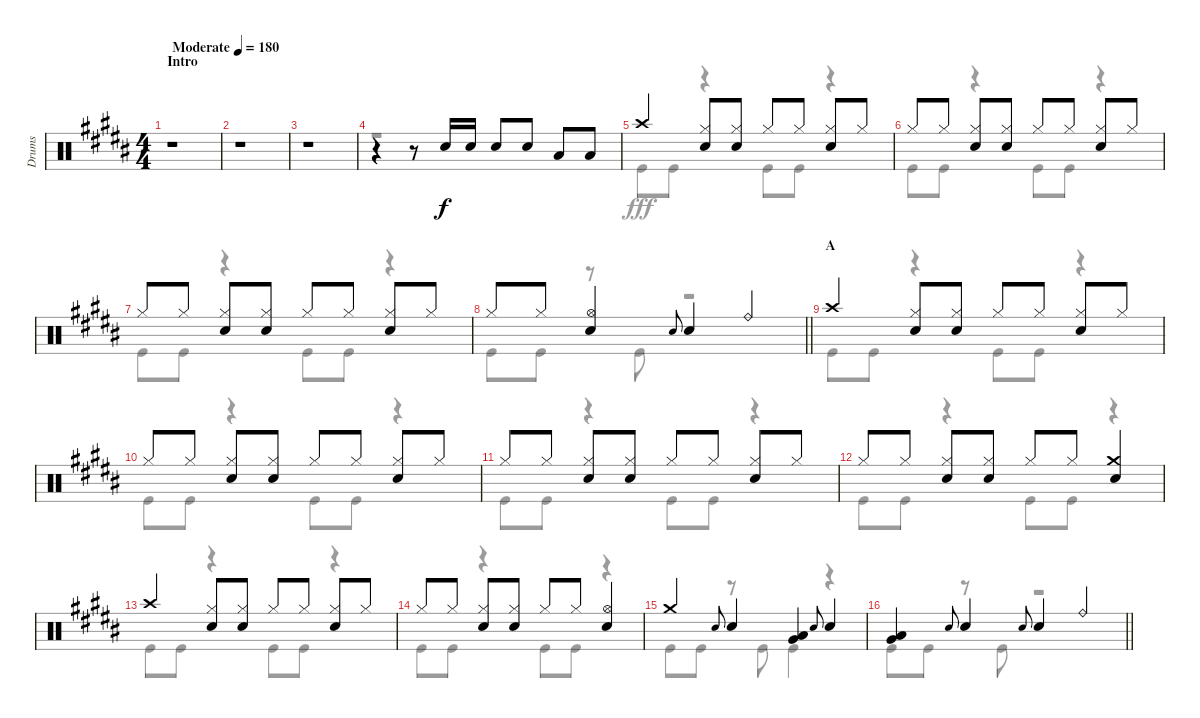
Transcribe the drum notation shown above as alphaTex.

\track ("Drums" "Drums") {instrument percussion}
\staff {score}
\articulation defaults
\voice
\ts (4 4)
\section ("" "Intro")
\tempo (180 "Moderate")
\clef neutral
\ks b
r.1{dy f} |
r.1 |
r.1 |
r.4 r.8 "Snare (hit) 2".16 "Snare (hit) 2".16 "Snare (hit) 2".8 "Snare (hit) 2".8 "Low Tom (hit)".8 "Low Tom (hit)".8 |
"Crash high (hit)".4 ("Hi-Hat (closed)" "Snare (hit) 2").8 ("Hi-Hat (closed)" "Snare (hit) 2").8 "Hi-Hat (closed)".8 "Hi-Hat (closed)".8 ("Hi-Hat (closed)" "Snare (hit) 2").8 "Hi-Hat (closed)".8 |
"Hi-Hat (closed)".8 "Hi-Hat (closed)".8 ("Hi-Hat (closed)" "Snare (hit) 2").8 ("Hi-Hat (closed)" "Snare (hit) 2").8 "Hi-Hat (closed)".8 "Hi-Hat (closed)".8 ("Hi-Hat (closed)" "Snare (hit) 2").8 "Hi-Hat (closed)".8 |
"Hi-Hat (closed)".8 "Hi-Hat (closed)".8 ("Hi-Hat (closed)" "Snare (hit) 2").8 ("Hi-Hat (closed)" "Snare (hit) 2").8 "Hi-Hat (closed)".8 "Hi-Hat (closed)".8 ("Hi-Hat (closed)" "Snare (hit) 2").8 "Hi-Hat (closed)".8 |
\barLineRight lightlight "Hi-Hat (closed)".8 "Hi-Hat (closed)".8
("Hi-Hat (open)" "Snare (hit) 2").4 "Snare (hit) 2".8{gr onbeat} "Snare (hit) 2".4 "Ride (bell)".4 |
\section ("" "A")
"Crash high (hit)".4 ("Hi-Hat (closed)" "Snare (hit) 2").8 ("Hi-Hat (closed)" "Snare (hit) 2").8 "Hi-Hat (closed)".8 "Hi-Hat (closed)".8 ("Hi-Hat (closed)" "Snare (hit) 2").8 "Hi-Hat (closed)".8 |
"Hi-Hat (closed)".8 "Hi-Hat (closed)".8 ("Hi-Hat (closed)" "Snare (hit) 2").8 ("Hi-Hat (closed)" "Snare (hit) 2").8 "Hi-Hat (closed)".8 "Hi-Hat (closed)".8 ("Hi-Hat (closed)" "Snare (hit) 2").8 "Hi-Hat (closed)".8 |
"Hi-Hat (closed)".8 "Hi-Hat (closed)".8 ("Hi-Hat (closed)" "Snare (hit) 2").8 ("Hi-Hat (closed)" "Snare (hit) 2").8 "Hi-Hat (closed)".8 "Hi-Hat (closed)".8 ("Hi-Hat (closed)" "Snare (hit) 2").8 "Hi-Hat (closed)".8 |
"Hi-Hat (closed)".8 "Hi-Hat (closed)".8 ("Hi-Hat (closed)" "Snare (hit) 2").8 ("Hi-Hat (closed)" "Snare (hit) 2").8 "Hi-Hat (closed)".8 "Hi-Hat (closed)".8 ("Crash medium (hit)" "Snare (hit) 2").4 |
"Crash high (hit)".4 ("Hi-Hat (closed)" "Snare (hit) 2").8 ("Hi-Hat (closed)" "Snare (hit) 2").8 "Hi-Hat (closed)".8 "Hi-Hat (closed)".8 ("Hi-Hat (closed)" "Snare (hit) 2").8 "Hi-Hat (closed)".8 |
"Hi-Hat (closed)".8 "Hi-Hat (closed)".8 ("Hi-Hat (closed)" "Snare (hit) 2").8 ("Hi-Hat (closed)" "Snare (hit) 2").8 "Hi-Hat (closed)".8 "Hi-Hat (closed)".8 ("Hi-Hat (open)" "Snare (hit) 2").4 |
"Crash medium (hit)".4 "Snare (hit) 2".8{gr onbeat} "Snare (hit) 2".4 ("Low Tom (hit)" "Very Low Tom (hit)").4 "Snare (hit) 2".8{gr onbeat} "Snare (hit) 2".4 |
\barLineRight lightlight
("Low Tom (hit)" "Very Low Tom (hit)").4 "Snare (hit) 2".8{gr onbeat} "Snare (hit) 2".4 "Snare (hit) 2".8{gr onbeat} "Snare (hit) 2".4 "Ride (bell)".4
\voice
\clef neutral
\ottava regular
\simile none
\ks b
r.1{dy fff} |
r.1 |
r.1 |
r.1 |
"Kick (hit)".8 "Kick (hit)".8 r.4 "Kick (hit)".8 "Kick (hit)".8 r.4 |
"Kick (hit)".8 "Kick (hit)".8 r.4 "Kick (hit)".8 "Kick (hit)".8 r.4 |
"Kick (hit)".8 "Kick (hit)".8 r.4 "Kick (hit)".8 "Kick (hit)".8 r.4 |
\barLineRight lightlight "Kick (hit)".8 "Kick (hit)".8
r.8 "Kick (hit)".8 r.2 |
"Kick (hit)".8 "Kick (hit)".8 r.4 "Kick (hit)".8 "Kick (hit)".8 r.4 |
"Kick (hit)".8 "Kick (hit)".8 r.4 "Kick (hit)".8 "Kick (hit)".8 r.4 |
"Kick (hit)".8 "Kick (hit)".8 r.4 "Kick (hit)".8 "Kick (hit)".8 r.4 |
"Kick (hit)".8 "Kick (hit)".8 r.4 "Kick (hit)".8 "Kick (hit)".8 r.4 |
"Kick (hit)".8 "Kick (hit)".8 r.4 "Kick (hit)".8 "Kick (hit)".8 r.4 |
"Kick (hit)".8 "Kick (hit)".8 r.4 "Kick (hit)".8 "Kick (hit)".8 r.4 |
"Kick (hit)".8 "Kick (hit)".8 r.8 "Kick (hit)".8 "Kick (hit)".4 r.4 |
\barLineRight lightlight "Kick (hit)".8 "Kick (hit)".8
r.8 "Kick (hit)".8 r.2
